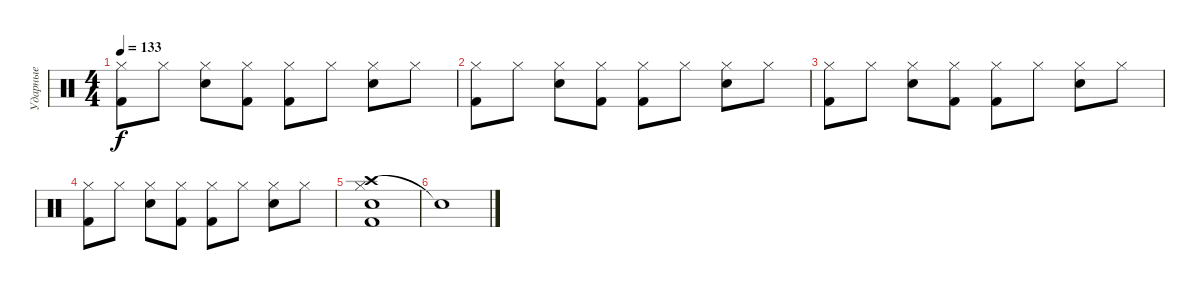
\track ("Ударные" "Ударные") {instrument percussion}
\staff {score}
\articulation defaults
\ts (4 4)
\tempo 133
\clef neutral
\ks c
("Kick (hit) 2" "Hi-Hat (closed)").8{dy f} "Hi-Hat (closed)".8 ("Electric Snare (hit)" "Hi-Hat (closed)").8 ("Kick (hit) 2" "Hi-Hat (closed)").8 ("Kick (hit) 2" "Hi-Hat (closed)").8 "Hi-Hat (closed)".8 ("Electric Snare (hit)" "Hi-Hat (closed)").8 "Hi-Hat (closed)".8 |
("Kick (hit) 2" "Hi-Hat (closed)").8 "Hi-Hat (closed)".8 ("Electric Snare (hit)" "Hi-Hat (closed)").8 ("Kick (hit) 2" "Hi-Hat (closed)").8 ("Kick (hit) 2" "Hi-Hat (closed)").8 "Hi-Hat (closed)".8 ("Electric Snare (hit)" "Hi-Hat (closed)").8 "Hi-Hat (closed)".8 |
("Kick (hit) 2" "Hi-Hat (closed)").8 "Hi-Hat (closed)".8 ("Electric Snare (hit)" "Hi-Hat (closed)").8 ("Kick (hit) 2" "Hi-Hat (closed)").8 ("Kick (hit) 2" "Hi-Hat (closed)").8 "Hi-Hat (closed)".8 ("Electric Snare (hit)" "Hi-Hat (closed)").8 "Hi-Hat (closed)".8 |
("Kick (hit) 2" "Hi-Hat (closed)").8 "Hi-Hat (closed)".8 ("Electric Snare (hit)" "Hi-Hat (closed)").8 ("Kick (hit) 2" "Hi-Hat (closed)").8 ("Kick (hit) 2" "Hi-Hat (closed)").8 "Hi-Hat (closed)".8 ("Electric Snare (hit)" "Hi-Hat (closed)").8 "Hi-Hat (closed)".8 |
("Crash high (hit)" "Kick (hit) 2" "Electric Snare (hit)" "Hi-Hat (closed)").1 |
"Snare (hit)"{t}.1
